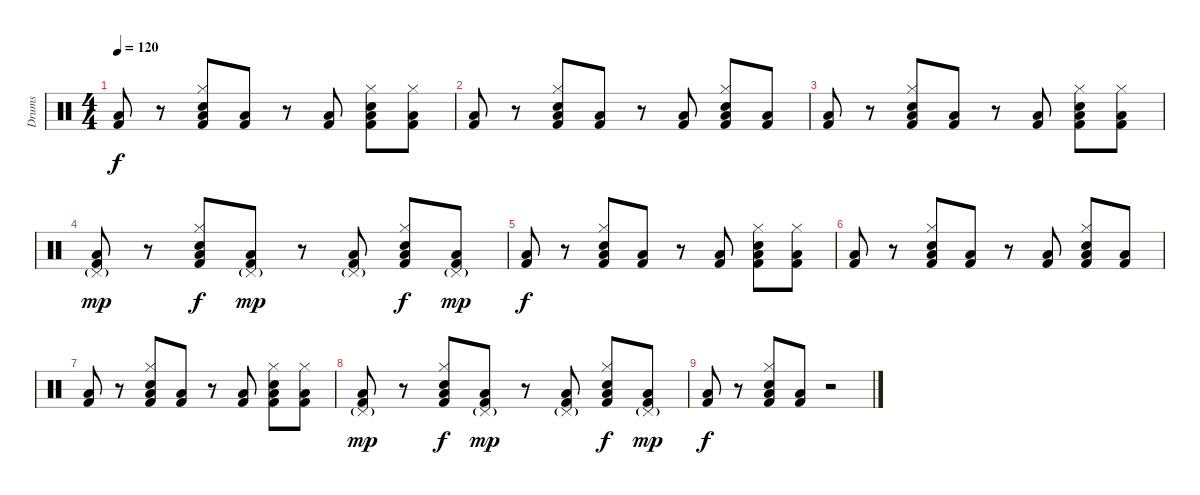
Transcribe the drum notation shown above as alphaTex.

\track ("Drums" "Drums") {instrument percussion}
\staff {score}
\articulation defaults
\ts (4 4)
\tempo 120
\clef neutral
\ks c
("Kick (hit) 2" "Low Floor Tom (hit)").8{dy f} r.8 ("Hi-Hat (closed)" "Electric Snare (hit)" "Kick (hit) 2" "Low Floor Tom (hit)").8 ("Kick (hit) 2" "Low Floor Tom (hit)").8 r.8 ("Kick (hit) 2" "Low Floor Tom (hit)").8 ("Hi-Hat (closed)" "Electric Snare (hit)" "Kick (hit) 2" "Low Floor Tom (hit)").8 ("Hi-Hat (closed)" "Kick (hit) 2" "Low Floor Tom (hit)").8 |
("Kick (hit) 2" "Low Floor Tom (hit)").8 r.8 ("Hi-Hat (closed)" "Electric Snare (hit)" "Kick (hit) 2" "Low Floor Tom (hit)").8 ("Kick (hit) 2" "Low Floor Tom (hit)").8 r.8 ("Kick (hit) 2" "Low Floor Tom (hit)").8 ("Hi-Hat (closed)" "Electric Snare (hit)" "Kick (hit) 2" "Low Floor Tom (hit)").8 ("Kick (hit) 2" "Low Floor Tom (hit)").8 |
("Kick (hit) 2" "Low Floor Tom (hit)").8 r.8 ("Hi-Hat (closed)" "Electric Snare (hit)" "Kick (hit) 2" "Low Floor Tom (hit)").8 ("Kick (hit) 2" "Low Floor Tom (hit)").8 r.8 ("Kick (hit) 2" "Low Floor Tom (hit)").8 ("Hi-Hat (closed)" "Electric Snare (hit)" "Kick (hit) 2" "Low Floor Tom (hit)").8 ("Hi-Hat (closed)" "Kick (hit) 2" "Low Floor Tom (hit)").8 |
("Pedal Hi-Hat (hit)"{g} "Kick (hit) 2" "Low Floor Tom (hit)").8{dy mp} r.8 ("Hi-Hat (closed)" "Electric Snare (hit)" "Kick (hit) 2" "Low Floor Tom (hit)").8{dy f} ("Pedal Hi-Hat (hit)"{g} "Kick (hit) 2" "Low Floor Tom (hit)").8{dy mp} r.8 ("Pedal Hi-Hat (hit)"{g} "Kick (hit) 2" "Low Floor Tom (hit)").8 ("Hi-Hat (closed)" "Electric Snare (hit)" "Kick (hit) 2" "Low Floor Tom (hit)").8{dy f} ("Pedal Hi-Hat (hit)"{g} "Kick (hit) 2" "Low Floor Tom (hit)").8{dy mp} |
("Kick (hit) 2" "Low Floor Tom (hit)").8{dy f} r.8 ("Hi-Hat (closed)" "Electric Snare (hit)" "Kick (hit) 2" "Low Floor Tom (hit)").8 ("Kick (hit) 2" "Low Floor Tom (hit)").8 r.8 ("Kick (hit) 2" "Low Floor Tom (hit)").8 ("Hi-Hat (closed)" "Electric Snare (hit)" "Kick (hit) 2" "Low Floor Tom (hit)").8 ("Hi-Hat (closed)" "Kick (hit) 2" "Low Floor Tom (hit)").8 |
("Kick (hit) 2" "Low Floor Tom (hit)").8 r.8 ("Hi-Hat (closed)" "Electric Snare (hit)" "Kick (hit) 2" "Low Floor Tom (hit)").8 ("Kick (hit) 2" "Low Floor Tom (hit)").8 r.8 ("Kick (hit) 2" "Low Floor Tom (hit)").8 ("Hi-Hat (closed)" "Electric Snare (hit)" "Kick (hit) 2" "Low Floor Tom (hit)").8 ("Kick (hit) 2" "Low Floor Tom (hit)").8 |
("Kick (hit) 2" "Low Floor Tom (hit)").8 r.8 ("Hi-Hat (closed)" "Electric Snare (hit)" "Kick (hit) 2" "Low Floor Tom (hit)").8 ("Kick (hit) 2" "Low Floor Tom (hit)").8 r.8 ("Kick (hit) 2" "Low Floor Tom (hit)").8 ("Hi-Hat (closed)" "Electric Snare (hit)" "Kick (hit) 2" "Low Floor Tom (hit)").8 ("Hi-Hat (closed)" "Kick (hit) 2" "Low Floor Tom (hit)").8 |
("Pedal Hi-Hat (hit)"{g} "Kick (hit) 2" "Low Floor Tom (hit)").8{dy mp} r.8 ("Hi-Hat (closed)" "Electric Snare (hit)" "Kick (hit) 2" "Low Floor Tom (hit)").8{dy f} ("Pedal Hi-Hat (hit)"{g} "Kick (hit) 2" "Low Floor Tom (hit)").8{dy mp} r.8 ("Pedal Hi-Hat (hit)"{g} "Kick (hit) 2" "Low Floor Tom (hit)").8 ("Hi-Hat (closed)" "Electric Snare (hit)" "Kick (hit) 2" "Low Floor Tom (hit)").8{dy f} ("Pedal Hi-Hat (hit)"{g} "Kick (hit) 2" "Low Floor Tom (hit)").8{dy mp} |
("Kick (hit) 2" "Low Floor Tom (hit)").8{dy f} r.8 ("Hi-Hat (closed)" "Electric Snare (hit)" "Kick (hit) 2" "Low Floor Tom (hit)").8 ("Kick (hit) 2" "Low Floor Tom (hit)").8 r.2
